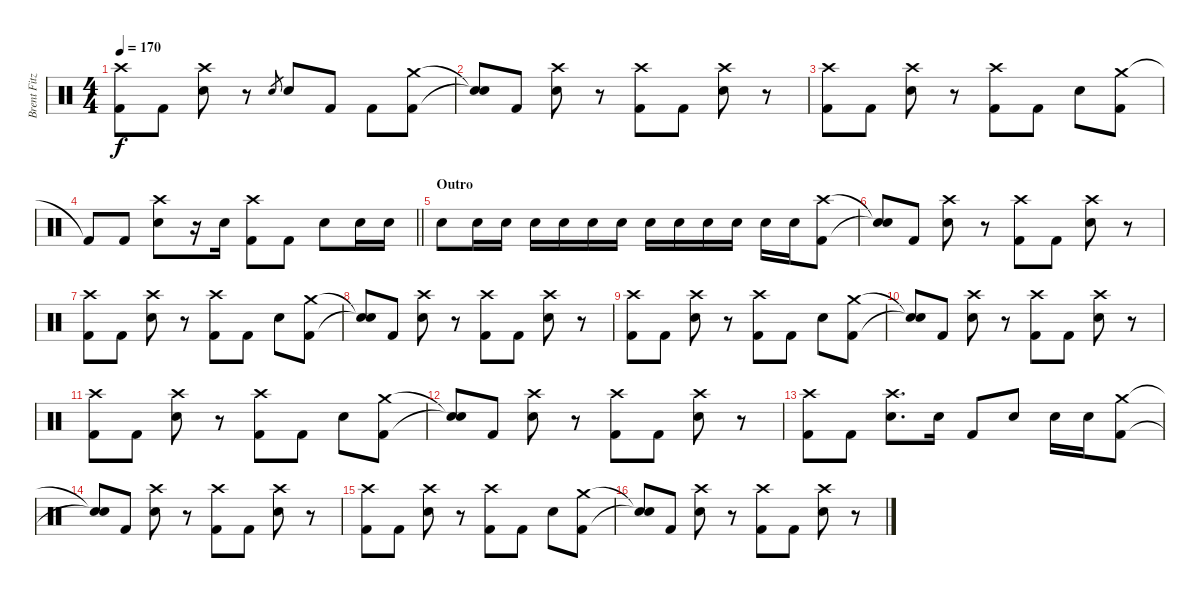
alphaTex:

\track ("Brent Fitz" "Brent Fitz") {instrument percussion}
\staff {score}
\articulation defaults
\ts (4 4)
\tempo 170
\clef neutral
\ks c
("Crash high (hit)" "Kick (hit) 2").8{dy f} "Kick (hit) 2".8 ("Crash high (hit)" "Electric Snare (hit)").8 r.8 "Electric Snare (hit)".8{gr} "Electric Snare (hit)".8 "Kick (hit) 2".8 "Kick (hit) 2".8 ("Crash medium (hit)" "Kick (hit) 2").8 |
("Snare (hit)"{t} "Snare (hit)"{t}).8 "Kick (hit) 2".8 ("Crash high (hit)" "Electric Snare (hit)").8 r.8 ("Crash high (hit)" "Kick (hit) 2").8 "Kick (hit) 2".8 ("Crash high (hit)" "Electric Snare (hit)").8 r.8 |
("Crash high (hit)" "Kick (hit) 2").8 "Kick (hit) 2".8 ("Crash high (hit)" "Electric Snare (hit)").8 r.8 ("Crash high (hit)" "Kick (hit) 2").8 "Kick (hit) 2".8 "Electric Snare (hit)".8 ("Crash medium (hit)" "Kick (hit) 2").8 |
\barLineRight lightlight "Kick (hit) 2"{t}.8 "Kick (hit) 2".8
("Crash high (hit)" "Electric Snare (hit)").8 r.16 "Electric Snare (hit)".16 ("Crash high (hit)" "Kick (hit) 2").8 "Kick (hit) 2".8 "Electric Snare (hit)".8 "Electric Snare (hit)".16 "Electric Snare (hit)".16 |
\section ("" "Outro")
"Electric Snare (hit)".8 "Electric Snare (hit)".16 "Electric Snare (hit)".16 "Electric Snare (hit)".16 "Electric Snare (hit)".16 "Electric Snare (hit)".16 "Electric Snare (hit)".16 "Electric Snare (hit)".16 "Electric Snare (hit)".16 "Electric Snare (hit)".16 "Electric Snare (hit)".16 "Electric Snare (hit)".16 "Electric Snare (hit)".16 ("Crash high (hit)" "Kick (hit) 2").8 |
("Snare (hit)"{t} "Snare (hit)"{t}).8 "Kick (hit) 2".8 ("Crash high (hit)" "Electric Snare (hit)").8 r.8 ("Crash high (hit)" "Kick (hit) 2").8 "Kick (hit) 2".8 ("Crash high (hit)" "Electric Snare (hit)").8 r.8 |
("Crash high (hit)" "Kick (hit) 2").8 "Kick (hit) 2".8 ("Crash high (hit)" "Electric Snare (hit)").8 r.8 ("Crash high (hit)" "Kick (hit) 2").8 "Kick (hit) 2".8 "Electric Snare (hit)".8 ("Crash medium (hit)" "Kick (hit) 2").8 |
("Snare (hit)"{t} "Snare (hit)"{t}).8 "Kick (hit) 2".8 ("Crash high (hit)" "Electric Snare (hit)").8 r.8 ("Crash high (hit)" "Kick (hit) 2").8 "Kick (hit) 2".8 ("Crash high (hit)" "Electric Snare (hit)").8 r.8 |
("Crash high (hit)" "Kick (hit) 2").8 "Kick (hit) 2".8 ("Crash high (hit)" "Electric Snare (hit)").8 r.8 ("Crash high (hit)" "Kick (hit) 2").8 "Kick (hit) 2".8 "Electric Snare (hit)".8 ("Crash medium (hit)" "Kick (hit) 2").8 |
("Snare (hit)"{t} "Snare (hit)"{t}).8 "Kick (hit) 2".8 ("Crash high (hit)" "Electric Snare (hit)").8 r.8 ("Crash high (hit)" "Kick (hit) 2").8 "Kick (hit) 2".8 ("Crash high (hit)" "Electric Snare (hit)").8 r.8 |
("Crash high (hit)" "Kick (hit) 2").8 "Kick (hit) 2".8 ("Crash high (hit)" "Electric Snare (hit)").8 r.8 ("Crash high (hit)" "Kick (hit) 2").8 "Kick (hit) 2".8 "Electric Snare (hit)".8 ("Crash medium (hit)" "Kick (hit) 2").8 |
("Snare (hit)"{t} "Snare (hit)"{t}).8 "Kick (hit) 2".8 ("Crash high (hit)" "Electric Snare (hit)").8 r.8 ("Crash high (hit)" "Kick (hit) 2").8 "Kick (hit) 2".8 ("Crash high (hit)" "Electric Snare (hit)").8 r.8 |
("Crash high (hit)" "Kick (hit) 2").8 "Kick (hit) 2".8 ("Crash high (hit)" "Electric Snare (hit)").8{d} "Electric Snare (hit)".16 "Kick (hit) 2".8 "Electric Snare (hit)".8 "Electric Snare (hit)".16 "Electric Snare (hit)".16 ("Crash medium (hit)" "Kick (hit) 2").8 |
("Snare (hit)"{t} "Snare (hit)"{t}).8 "Kick (hit) 2".8 ("Crash high (hit)" "Electric Snare (hit)").8 r.8 ("Crash high (hit)" "Kick (hit) 2").8 "Kick (hit) 2".8 ("Crash high (hit)" "Electric Snare (hit)").8 r.8 |
("Crash high (hit)" "Kick (hit) 2").8 "Kick (hit) 2".8 ("Crash high (hit)" "Electric Snare (hit)").8 r.8 ("Crash high (hit)" "Kick (hit) 2").8 "Kick (hit) 2".8 "Electric Snare (hit)".8 ("Crash medium (hit)" "Kick (hit) 2").8 |
("Snare (hit)"{t} "Snare (hit)"{t}).8 "Kick (hit) 2".8 ("Crash high (hit)" "Electric Snare (hit)").8 r.8 ("Crash high (hit)" "Kick (hit) 2").8 "Kick (hit) 2".8 ("Crash high (hit)" "Electric Snare (hit)").8 r.8
